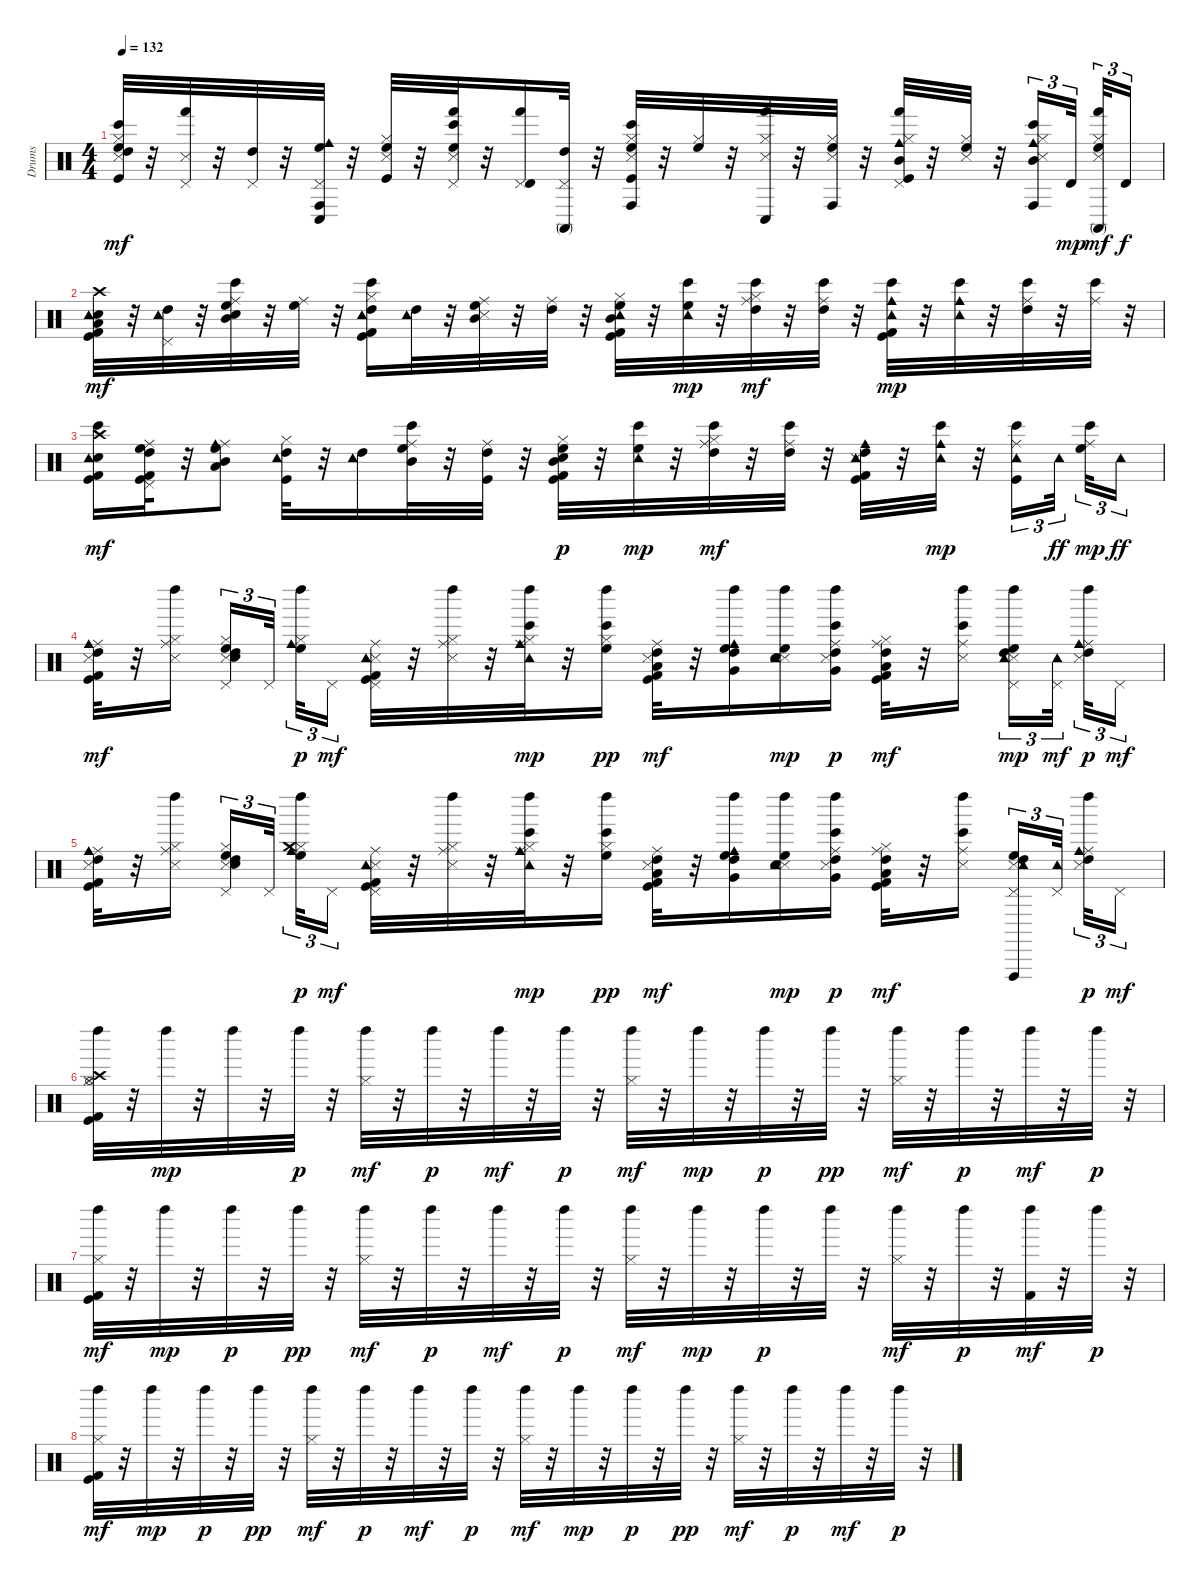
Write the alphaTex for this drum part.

\track ("Drums" "Drums") {instrument percussion}
\staff {score}
\articulation defaults
\ts (4 4)
\tempo 132
\clef neutral
\ks c
("Kick (hit)" "Snare (side stick) 3" "Hi-Hat (closed)" "High Tom (hit)" "High Floor Tom (hit)" "Bongo High (hit)").32{dy mf} r.32 ("Snare (side stick) 3" "Pedal Hi-Hat (hit)" "Hand (hit)").32 r.32 ("Pedal Hi-Hat (hit)" "High Tom (hit)").32 r.32 ("Pedal Hi-Hat (hit)" "High Floor Tom (hit)" "Cowbell medium (hit)" "Conga high (hit)" "Conga low (hit)").32 r.32 ("Kick (hit)" "Snare (side stick) 3" "Hi-Hat (closed)" "High Floor Tom (hit)").32 r.32 ("Snare (side stick) 3" "Pedal Hi-Hat (hit)" "High Floor Tom (hit)" "Bongo High (hit)" "Hand (hit)").32 r.32 ("Pedal Hi-Hat (hit)" "Hand (hit)" "Timbale high (hit)").16 ("Pedal Hi-Hat (hit)" "High Tom (hit)" "Conga high (mute)").32 r.32 ("Kick (hit)" "Snare (side stick) 3" "Hi-Hat (closed)" "High Floor Tom (hit)" "Bongo High (hit)" "Conga high (hit)").32 r.32 ("Hi-Hat (closed)" "High Floor Tom (hit)").32 r.32 ("Snare (side stick) 3" "Hi-Hat (closed)" "Hand (hit)" "Conga low (hit)").32 r.32 ("Snare (side stick) 3" "Hi-Hat (closed)" "High Floor Tom (hit)" "Conga high (hit)").32 r.32 ("Kick (hit)" "Hi-Hat (closed)" "Pedal Hi-Hat (hit)" "Mid Tom (hit)" "Cowbell medium (hit)" "Hand (hit)").32 r.32 ("Snare (side stick) 3" "Hi-Hat (closed)" "High Floor Tom (hit)").32 r.32 ("Snare (side stick) 3" "Hi-Hat (closed)" "Mid Tom (hit)" "Cowbell medium (hit)" "Bongo High (hit)" "Conga high (hit)").16{tu (3 2)} "Timbale high (hit)".32{tu (3 2) dy mp beam splitsecondary} ("Snare (side stick) 3" "Hi-Hat (closed)" "High Floor Tom (hit)" "Hand (hit)" "Conga high (mute)").32{tu (3 2) dy mf} "Timbale high (hit)".16{tu (3 2) dy f} |
("Kick (hit)" "Kick (hit) 2" "Hand Clap (hit)" "Low Tom (hit)" "Crash high (hit)" "Tambourine (hit)").32{dy mf} r.32 ("Pedal Hi-Hat (hit)" "High Tom (hit)" "Tambourine (hit)").32 r.32 ("Hand Clap (hit)" "Mid Tom (hit)" "High Floor Tom (hit)" "Ride (middle)" "Bongo High (hit)").32 r.32 ("High Floor Tom (hit)" "Ride (middle)").32 r.32 ("Kick (hit)" "Kick (hit) 2" "Hi-Hat (closed)" "High Tom (hit)" "Tambourine (hit)" "Bongo High (hit)").16 ("High Tom (hit)" "Tambourine (hit)").32 r.32 ("Snare (side stick) 3" "Mid Tom (hit)" "High Floor Tom (hit)" "Ride (middle)").32 r.32 ("High Tom (hit)" "Ride (middle)").32 r.32 ("Kick (hit)" "Kick (hit) 2" "Hi-Hat (closed)" "Mid Tom (hit)" "High Floor Tom (hit)" "Tambourine (hit)").32 r.32 ("High Floor Tom (hit)" "Tambourine (hit)" "Bongo High (hit)").32{dy mp} r.32 ("Hi-Hat (closed)" "High Tom (hit)" "Ride (middle)" "Bongo High (hit)").32{dy mf} r.32 ("High Tom (hit)" "Ride (middle)" "Bongo High (hit)").32 r.32 ("Kick (hit)" "Kick (hit) 2" "Tambourine (hit)" "Cowbell medium (hit)" "Bongo High (hit)").32{dy mp} r.32 ("Tambourine (hit)" "Cowbell medium (hit)" "Bongo High (hit)").32 r.32 ("High Tom (hit)" "Ride (middle)" "Bongo High (hit)").32 r.32 ("Ride (middle)" "Bongo High (hit)").32 r.32 |
("Kick (hit)" "Kick (hit) 2" "Hand Clap (hit)" "Crash high (hit)" "Tambourine (hit)" "Bongo High (hit)").16{dy mf} ("Kick (hit)" "Kick (hit) 2" "Pedal Hi-Hat (hit)" "High Tom (hit)" "High Floor Tom (hit)" "Ride (middle)").32 r.32 ("Low Tom (hit)" "Mid Tom (hit)" "High Floor Tom (hit)" "Ride (middle)" "Cowbell medium (hit)").8 ("Kick (hit)" "Hi-Hat (closed)" "High Tom (hit)" "Tambourine (hit)").32 r.32 ("High Tom (hit)" "Tambourine (hit)").16 ("Mid Tom (hit)" "High Floor Tom (hit)" "Ride (middle)" "Bongo High (hit)").32 r.32 ("Kick (hit)" "High Tom (hit)" "Ride (middle)").32 r.32 ("Kick (hit)" "Kick (hit) 2" "Hand Clap (hit)" "Hi-Hat (closed)" "Mid Tom (hit)" "High Floor Tom (hit)").32{dy p} r.32 ("High Floor Tom (hit)" "Tambourine (hit)" "Bongo High (hit)").32{dy mp} r.32 ("Hi-Hat (closed)" "High Tom (hit)" "Ride (middle)" "Bongo High (hit)").32{dy mf} r.32 ("High Tom (hit)" "Ride (middle)" "Bongo High (hit)").32 r.32 ("Kick (hit)" "Kick (hit) 2" "Snare (side stick) 3" "High Tom (hit)" "Tambourine (hit)" "Cowbell medium (hit)").32 r.32 ("Tambourine (hit)" "Cowbell medium (hit)" "Bongo High (hit)").32{dy mp} r.32 ("Kick (hit)" "Ride (middle)" "Tambourine (hit)" "Bongo High (hit)").16{tu (3 2)} "Tambourine (hit)".32{tu (3 2) dy ff beam splitsecondary} ("High Floor Tom (hit)" "Ride (middle)" "Bongo High (hit)").32{tu (3 2) dy mp} "Tambourine (hit)".16{tu (3 2) dy ff} |
("Kick (hit)" "Kick (hit) 2" "Snare (side stick) 3" "High Tom (hit)" "Ride (middle)" "Cowbell medium (hit)").32{dy mf} r.32 ("Snare (side stick) 3" "Hi-Hat (closed)" "Ride (middle)" "Left Maraca (hit)").16{beam splitsecondary} ("Snare (side stick) 3" "Hand Clap (hit)" "Hi-Hat (closed)" "Pedal Hi-Hat (hit)" "High Tom (hit)" "High Floor Tom (hit)").16{tu (3 2)} "Pedal Hi-Hat (hit)".32{tu (3 2) beam splitsecondary} ("Hi-Hat (closed)" "High Floor Tom (hit)" "Cowbell medium (hit)" "Left Maraca (hit)").32{tu (3 2) dy p} "Pedal Hi-Hat (hit)".16{tu (3 2) dy mf} ("Kick (hit)" "Kick (hit) 2" "Snare (side stick) 3" "Pedal Hi-Hat (hit)" "Ride (middle)" "Tambourine (hit)").32 r.32 ("Snare (side stick) 3" "Hi-Hat (closed)" "Ride (middle)" "Left Maraca (hit)").32 r.32 ("Hi-Hat (closed)" "Ride (middle)" "Tambourine (hit)" "Cowbell medium (hit)" "Bongo High (hit)" "Left Maraca (hit)").32{dy mp} r.32 ("Hi-Hat (closed)" "High Floor Tom (hit)" "Bongo High (hit)" "Left Maraca (hit)").16{dy pp} ("Kick (hit)" "Kick (hit) 2" "Snare (side stick) 3" "Low Tom (hit)" "High Tom (hit)" "Ride (middle)").32{dy mf} r.32 ("Very Low Tom (hit)" "High Tom (hit)" "High Floor Tom (hit)" "Cowbell medium (hit)" "Left Maraca (hit)").16 ("Snare (side stick) 3" "Hand Clap (hit)" "High Floor Tom (hit)" "Tambourine (hit)" "Left Maraca (hit)").16{dy mp} ("Snare (side stick) 3" "Very Low Tom (hit)" "High Tom (hit)" "Ride (middle)" "Bongo High (hit)" "Left Maraca (hit)").16{dy p} ("Kick (hit)" "Kick (hit) 2" "Hi-Hat (closed)" "Low Tom (hit)" "High Tom (hit)" "Ride (middle)").32{dy mf} r.32 ("Snare (side stick) 3" "Ride (middle)" "Bongo High (hit)" "Left Maraca (hit)").16{beam splitsecondary} ("Snare (side stick) 3" "Pedal Hi-Hat (hit)" "High Tom (hit)" "High Floor Tom (hit)" "Tambourine (hit)" "Left Maraca (hit)").16{tu (3 2) dy mp} ("Pedal Hi-Hat (hit)" "Tambourine (hit)").32{tu (3 2) dy mf beam splitsecondary} ("Snare (side stick) 3" "High Tom (hit)" "Ride (middle)" "Cowbell medium (hit)" "Left Maraca (hit)").32{tu (3 2) dy p} "Pedal Hi-Hat (hit)".16{tu (3 2) dy mf} |
("Kick (hit)" "Kick (hit) 2" "Snare (side stick) 3" "High Tom (hit)" "Ride (middle)" "Cowbell medium (hit)").32 r.32 ("Snare (side stick) 3" "Hi-Hat (closed)" "Ride (middle)" "Left Maraca (hit)").16{beam splitsecondary} ("Snare (side stick) 3" "Hand Clap (hit)" "Hi-Hat (closed)" "Pedal Hi-Hat (hit)" "High Tom (hit)" "High Floor Tom (hit)").16{tu (3 2)} "Pedal Hi-Hat (hit)".32{tu (3 2) beam splitsecondary} ("Hi-Hat (closed)" "High Floor Tom (hit)" "Cowbell medium (hit)" "Crash medium (hit)" "Left Maraca (hit)").32{tu (3 2) dy p} "Pedal Hi-Hat (hit)".16{tu (3 2) dy mf} ("Kick (hit)" "Kick (hit) 2" "Snare (side stick) 3" "Pedal Hi-Hat (hit)" "Ride (middle)" "Tambourine (hit)").32 r.32 ("Snare (side stick) 3" "Hi-Hat (closed)" "Ride (middle)" "Left Maraca (hit)").32 r.32 ("Hi-Hat (closed)" "Ride (middle)" "Tambourine (hit)" "Cowbell medium (hit)" "Bongo High (hit)" "Left Maraca (hit)").32{dy mp} r.32 ("Hi-Hat (closed)" "High Floor Tom (hit)" "Bongo High (hit)" "Left Maraca (hit)").16{dy pp} ("Kick (hit)" "Kick (hit) 2" "Snare (side stick) 3" "Low Tom (hit)" "High Tom (hit)" "Ride (middle)").32{dy mf} r.32 ("Very Low Tom (hit)" "High Tom (hit)" "High Floor Tom (hit)" "Cowbell medium (hit)" "Left Maraca (hit)").16 ("Snare (side stick) 3" "Hand Clap (hit)" "High Floor Tom (hit)" "Tambourine (hit)" "Left Maraca (hit)").16{dy mp} ("Snare (side stick) 3" "Very Low Tom (hit)" "High Tom (hit)" "Ride (middle)" "Bongo High (hit)" "Left Maraca (hit)").16{dy p} ("Kick (hit)" "Kick (hit) 2" "Hi-Hat (closed)" "Low Tom (hit)" "High Tom (hit)" "Ride (middle)").32{dy mf} r.32 ("Snare (side stick) 3" "Ride (middle)" "Bongo High (hit)" "Left Maraca (hit)").16{beam splitsecondary} ("Snare (side stick) 3" "Pedal Hi-Hat (hit)" "High Tom (hit)" "High Floor Tom (hit)" "Tambourine (hit)" "Vibraslap (hit)").16{tu (3 2)} ("Pedal Hi-Hat (hit)" "Tambourine (hit)").32{tu (3 2) beam splitsecondary} ("Snare (side stick) 3" "High Tom (hit)" "Ride (middle)" "Cowbell medium (hit)" "Left Maraca (hit)").32{tu (3 2) dy p} "Pedal Hi-Hat (hit)".16{tu (3 2) dy mf} |
("Kick (hit)" "Kick (hit) 2" "Hi-Hat (closed)" "Hi-Hat (open)" "Crash high (hit)" "Left Maraca (hit)").32 r.32 "Left Maraca (hit)".32{dy mp} r.32 "Left Maraca (hit)".32 r.32 "Left Maraca (hit)".32{dy p} r.32 ("Hi-Hat (closed)" "Left Maraca (hit)").32{dy mf} r.32 "Left Maraca (hit)".32{dy p} r.32 "Left Maraca (hit)".32{dy mf} r.32 "Left Maraca (hit)".32{dy p} r.32 ("Hi-Hat (closed)" "Left Maraca (hit)").32{dy mf} r.32 "Left Maraca (hit)".32{dy mp} r.32 "Left Maraca (hit)".32{dy p} r.32 "Left Maraca (hit)".32{dy pp} r.32 ("Hi-Hat (closed)" "Left Maraca (hit)").32{dy mf} r.32 "Left Maraca (hit)".32{dy p} r.32 "Left Maraca (hit)".32{dy mf} r.32 "Left Maraca (hit)".32{dy p} r.32 |
("Kick (hit)" "Kick (hit) 2" "Hi-Hat (closed)" "Left Maraca (hit)").32{dy mf} r.32 "Left Maraca (hit)".32{dy mp} r.32 "Left Maraca (hit)".32{dy p} r.32 "Left Maraca (hit)".32{dy pp} r.32 ("Hi-Hat (closed)" "Left Maraca (hit)").32{dy mf} r.32 "Left Maraca (hit)".32{dy p} r.32 "Left Maraca (hit)".32{dy mf} r.32 "Left Maraca (hit)".32{dy p} r.32 ("Hi-Hat (closed)" "Left Maraca (hit)").32{dy mf} r.32 "Left Maraca (hit)".32{dy mp} r.32 "Left Maraca (hit)".32{dy p} r.32 "Left Maraca (hit)".32 r.32 ("Hi-Hat (closed)" "Left Maraca (hit)").32{dy mf} r.32 "Left Maraca (hit)".32{dy p} r.32 ("Kick (hit) 2" "Left Maraca (hit)").32{dy mf} r.32 "Left Maraca (hit)".32{dy p} r.32 |
("Kick (hit)" "Kick (hit) 2" "Hi-Hat (closed)" "Left Maraca (hit)").32{dy mf} r.32 "Left Maraca (hit)".32{dy mp} r.32 "Left Maraca (hit)".32{dy p} r.32 "Left Maraca (hit)".32{dy pp} r.32 ("Hi-Hat (closed)" "Left Maraca (hit)").32{dy mf} r.32 "Left Maraca (hit)".32{dy p} r.32 "Left Maraca (hit)".32{dy mf} r.32 "Left Maraca (hit)".32{dy p} r.32 ("Hi-Hat (closed)" "Left Maraca (hit)").32{dy mf} r.32 "Left Maraca (hit)".32{dy mp} r.32 "Left Maraca (hit)".32{dy p} r.32 "Left Maraca (hit)".32{dy pp} r.32 ("Hi-Hat (closed)" "Left Maraca (hit)").32{dy mf} r.32 "Left Maraca (hit)".32{dy p} r.32 "Left Maraca (hit)".32{dy mf} r.32 "Left Maraca (hit)".32{dy p} r.32
